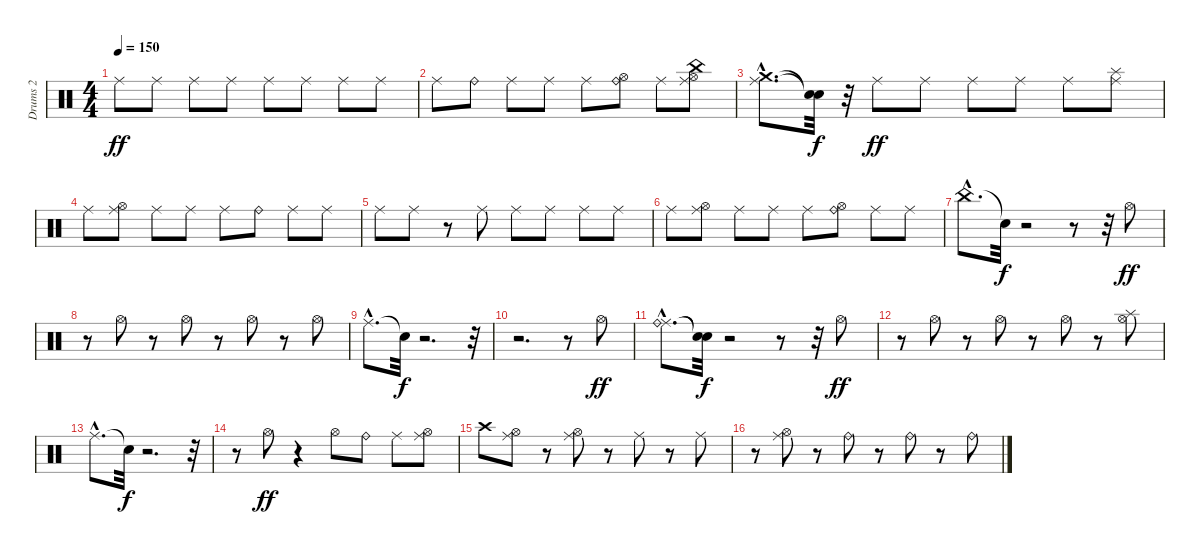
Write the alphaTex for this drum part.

\track ("Drums 2" "Drums 2") {instrument percussion}
\staff {score}
\articulation defaults
\ts (4 4)
\tempo 150
\clef neutral
\ks c "Ride (middle)".8{dy ff} "Ride (middle)".8 "Ride (middle)".8 "Ride (middle)".8 "Ride (middle)".8 "Ride (middle)".8 "Ride (middle)".8 "Ride (middle)".8
|
"Ride (middle)".8 "Ride (bell)".8 "Ride (middle)".8 "Ride (middle)".8 "Ride (middle)".8 ("Hi-Hat (open)" "Ride (bell)").8 "Ride (middle)".8 ("Hi-Hat (open)" "Ride (middle)" "China (hit)").8 |
("Ride (middle)"{hac} "Crash medium (hit)"{hac}).8{d} ("Snare (hit)"{t} "Snare (hit)"{t}).32{dy f} r.32 "Ride (middle)".8{dy ff} "Ride (middle)".8 "Ride (middle)".8 "Ride (middle)".8 "Ride (middle)".8 ("Ride (middle)" "Splash (hit)").8 |
"Ride (middle)".8 ("Hi-Hat (open)" "Ride (middle)").8 "Ride (middle)".8 "Ride (middle)".8 "Ride (middle)".8 "Ride (bell)".8 "Ride (middle)".8 "Ride (middle)".8 |
"Ride (middle)".8 "Ride (middle)".8 r.8 "Ride (middle)".8 "Ride (middle)".8 "Ride (middle)".8 "Ride (middle)".8 "Ride (middle)".8 |
"Ride (middle)".8 ("Hi-Hat (open)" "Ride (middle)").8 "Ride (middle)".8 "Ride (middle)".8 "Ride (middle)".8 ("Hi-Hat (open)" "Ride (bell)").8 "Ride (middle)".8 "Ride (middle)".8 |
"China (hit)"{hac}.8{d} "Snare (hit)"{t}.32{dy f} r.2 r.8 r.32 "Hi-Hat (open)".8{dy ff} |
r.8 "Hi-Hat (open)".8 r.8 "Hi-Hat (open)".8 r.8 "Hi-Hat (open)".8 r.8 "Hi-Hat (open)".8 |
"Ride (middle)"{hac}.8{d} "Snare (hit)"{t}.32{dy f} r.2{d} r.32 |
r.2{d} r.8 "Hi-Hat (open)".8{dy ff} |
("Ride (middle)"{hac} "Ride (bell)"{hac}).8{d} ("Snare (hit)"{t} "Snare (hit)"{t}).32{dy f} r.2 r.8 r.32 "Hi-Hat (open)".8{dy ff} |
r.8 "Hi-Hat (open)".8 r.8 "Hi-Hat (open)".8 r.8 "Hi-Hat (open)".8 r.8 ("Hi-Hat (open)" "Splash (hit)").8 |
"Ride (middle)"{hac}.8{d} "Snare (hit)"{t}.32{dy f} r.2{d} r.32 |
r.8 "Hi-Hat (open)".8{dy ff} r.4 "Hi-Hat (open)".8 "Ride (bell)".8 "Ride (middle)".8 ("Hi-Hat (open)" "Ride (middle)").8 |
"Crash high (hit)".8 ("Hi-Hat (open)" "Ride (middle)").8 r.8 ("Hi-Hat (open)" "Ride (middle)").8 r.8 "Ride (middle)".8 r.8 "Ride (middle)".8 |
r.8 ("Hi-Hat (open)" "Ride (middle)").8 r.8 "Ride (bell)".8 r.8 "Ride (bell)".8 r.8 "Ride (bell)".8
